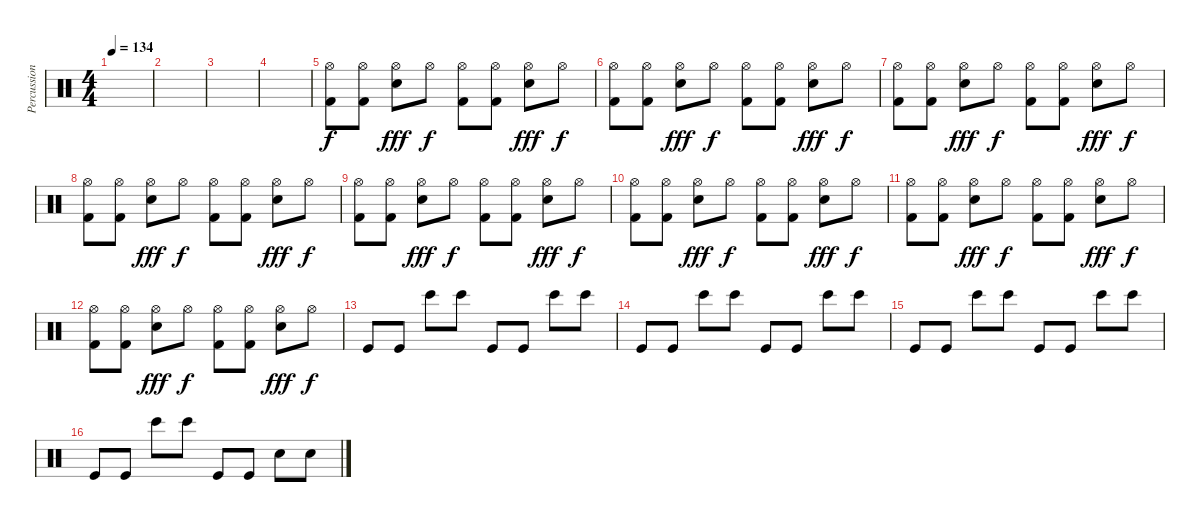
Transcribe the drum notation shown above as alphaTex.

\track ("Percussion" "Percussion") {instrument percussion}
\staff {score}
\articulation defaults
\ts (4 4)
\tempo 134
\clef neutral
\ks c
|
|
|
|
("Hi-Hat (open)" "Kick (hit) 2").8 ("Hi-Hat (open)" "Kick (hit) 2").8 ("Hi-Hat (open)" "Snare (hit) 2").8{dy fff} "Hi-Hat (open)".8{dy f} ("Hi-Hat (open)" "Kick (hit) 2").8 ("Hi-Hat (open)" "Kick (hit) 2").8 ("Hi-Hat (open)" "Snare (hit) 2").8{dy fff} "Hi-Hat (open)".8{dy f} |
("Hi-Hat (open)" "Kick (hit) 2").8 ("Hi-Hat (open)" "Kick (hit) 2").8 ("Hi-Hat (open)" "Snare (hit) 2").8{dy fff} "Hi-Hat (open)".8{dy f} ("Hi-Hat (open)" "Kick (hit) 2").8 ("Hi-Hat (open)" "Kick (hit) 2").8 ("Hi-Hat (open)" "Snare (hit) 2").8{dy fff} "Hi-Hat (open)".8{dy f} |
("Hi-Hat (open)" "Kick (hit) 2").8 ("Hi-Hat (open)" "Kick (hit) 2").8 ("Hi-Hat (open)" "Snare (hit) 2").8{dy fff} "Hi-Hat (open)".8{dy f} ("Hi-Hat (open)" "Kick (hit) 2").8 ("Hi-Hat (open)" "Kick (hit) 2").8 ("Hi-Hat (open)" "Snare (hit) 2").8{dy fff} "Hi-Hat (open)".8{dy f} |
("Hi-Hat (open)" "Kick (hit) 2").8 ("Hi-Hat (open)" "Kick (hit) 2").8 ("Hi-Hat (open)" "Snare (hit) 2").8{dy fff} "Hi-Hat (open)".8{dy f} ("Hi-Hat (open)" "Kick (hit) 2").8 ("Hi-Hat (open)" "Kick (hit) 2").8 ("Hi-Hat (open)" "Snare (hit) 2").8{dy fff} "Hi-Hat (open)".8{dy f} |
("Hi-Hat (open)" "Kick (hit) 2").8 ("Hi-Hat (open)" "Kick (hit) 2").8 ("Hi-Hat (open)" "Snare (hit) 2").8{dy fff} "Hi-Hat (open)".8{dy f} ("Hi-Hat (open)" "Kick (hit) 2").8 ("Hi-Hat (open)" "Kick (hit) 2").8 ("Hi-Hat (open)" "Snare (hit) 2").8{dy fff} "Hi-Hat (open)".8{dy f} |
("Hi-Hat (open)" "Kick (hit) 2").8 ("Hi-Hat (open)" "Kick (hit) 2").8 ("Hi-Hat (open)" "Snare (hit) 2").8{dy fff} "Hi-Hat (open)".8{dy f} ("Hi-Hat (open)" "Kick (hit) 2").8 ("Hi-Hat (open)" "Kick (hit) 2").8 ("Hi-Hat (open)" "Snare (hit) 2").8{dy fff} "Hi-Hat (open)".8{dy f} |
("Hi-Hat (open)" "Kick (hit) 2").8 ("Hi-Hat (open)" "Kick (hit) 2").8 ("Hi-Hat (open)" "Snare (hit) 2").8{dy fff} "Hi-Hat (open)".8{dy f} ("Hi-Hat (open)" "Kick (hit) 2").8 ("Hi-Hat (open)" "Kick (hit) 2").8 ("Hi-Hat (open)" "Snare (hit) 2").8{dy fff} "Hi-Hat (open)".8{dy f} |
("Hi-Hat (open)" "Kick (hit) 2").8 ("Hi-Hat (open)" "Kick (hit) 2").8 ("Hi-Hat (open)" "Snare (hit) 2").8{dy fff} "Hi-Hat (open)".8{dy f} ("Hi-Hat (open)" "Kick (hit) 2").8 ("Hi-Hat (open)" "Kick (hit) 2").8 ("Hi-Hat (open)" "Snare (hit) 2").8{dy fff} "Hi-Hat (open)".8{dy f} |
"Kick (hit)".8 "Kick (hit)".8 "Bongo High (hit)".8 "Bongo High (hit)".8 "Kick (hit)".8 "Kick (hit)".8 "Bongo High (hit)".8 "Bongo High (hit)".8 |
"Kick (hit)".8 "Kick (hit)".8 "Bongo High (hit)".8 "Bongo High (hit)".8 "Kick (hit)".8 "Kick (hit)".8 "Bongo High (hit)".8 "Bongo High (hit)".8 |
"Kick (hit)".8 "Kick (hit)".8 "Bongo High (hit)".8 "Bongo High (hit)".8 "Kick (hit)".8 "Kick (hit)".8 "Bongo High (hit)".8 "Bongo High (hit)".8 |
"Kick (hit)".8 "Kick (hit)".8 "Bongo High (hit)".8 "Bongo High (hit)".8 "Kick (hit)".8 "Kick (hit)".8 "Snare (hit) 2".8 "Snare (hit) 2".8
